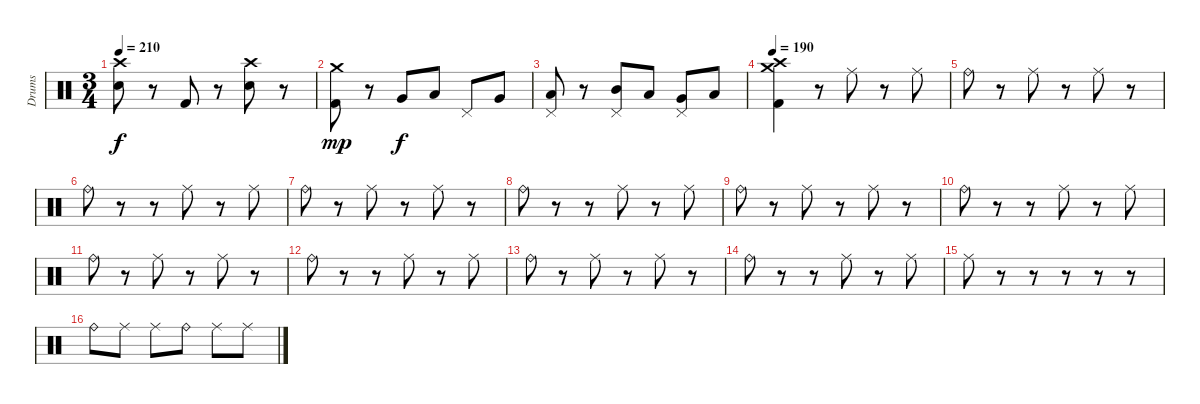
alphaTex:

\track ("Drums" "Drums") {instrument percussion}
\staff {score}
\articulation defaults
\ts (3 4)
\tempo 210
\clef neutral
\ks c
("Crash high (hit)" "Electric Snare (hit)").8{dy f} r.8 "Kick (hit) 2".8 r.8 ("Crash high (hit)" "Electric Snare (hit)").8 r.8 |
("Crash medium (hit)" "Kick (hit) 2").8{dy mp} r.8 "Very Low Tom (hit)".8{dy f} "Low Tom (hit)".8 "Pedal Hi-Hat (hit)".8 "Very Low Tom (hit)".8 |
("Pedal Hi-Hat (hit)" "Low Floor Tom (hit)").8 r.8 ("Pedal Hi-Hat (hit)" "Mid Tom (hit)").8 "Low Tom (hit)".8 ("Pedal Hi-Hat (hit)" "Very Low Tom (hit)").8 "Low Floor Tom (hit)".8 |
\tempo 190
("Crash high (hit)" "Crash medium (hit)" "Kick (hit) 2").4 r.8 "Ride (middle)".8 r.8 "Ride (middle)".8 |
"Ride (bell)".8 r.8 "Ride (middle)".8 r.8 "Ride (middle)".8 r.8 |
"Ride (bell)".8 r.8 r.8 "Ride (middle)".8 r.8 "Ride (middle)".8 |
"Ride (bell)".8 r.8 "Ride (middle)".8 r.8 "Ride (middle)".8 r.8 |
"Ride (bell)".8 r.8 r.8 "Ride (middle)".8 r.8 "Ride (middle)".8 |
"Ride (bell)".8 r.8 "Ride (middle)".8 r.8 "Ride (middle)".8 r.8 |
"Ride (bell)".8 r.8 r.8 "Ride (middle)".8 r.8 "Ride (middle)".8 |
"Ride (bell)".8 r.8 "Ride (middle)".8 r.8 "Ride (middle)".8 r.8 |
"Ride (bell)".8 r.8 r.8 "Ride (middle)".8 r.8 "Ride (middle)".8 |
"Ride (bell)".8 r.8 "Ride (middle)".8 r.8 "Ride (middle)".8 r.8 |
"Ride (bell)".8 r.8 r.8 "Ride (middle)".8 r.8 "Ride (middle)".8 |
"Ride (middle)".8 r.8 r.8 r.8 r.8 r.8 |
"Ride (bell)".8 "Ride (middle)".8 "Ride (middle)".8 "Ride (bell)".8 "Ride (middle)".8 "Ride (middle)".8
